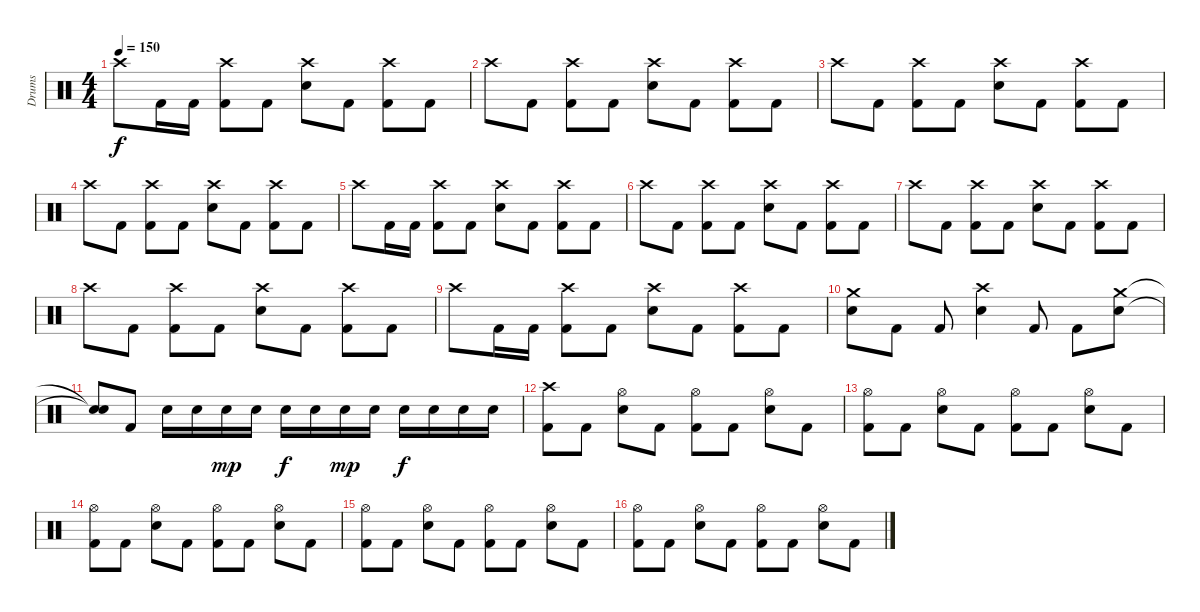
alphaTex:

\track ("Drums" "Drums") {instrument percussion}
\staff {score}
\articulation defaults
\ts (4 4)
\tempo 150
\clef neutral
\ks c "Crash high (hit)".8{dy f} "Kick (hit) 2".16 "Kick (hit) 2".16
("Crash high (hit)" "Kick (hit) 2").8 "Kick (hit) 2".8 ("Crash high (hit)" "Electric Snare (hit)").8 "Kick (hit) 2".8 ("Crash high (hit)" "Kick (hit) 2").8 "Kick (hit) 2".8 |
"Crash high (hit)".8 "Kick (hit) 2".8 ("Crash high (hit)" "Kick (hit) 2").8 "Kick (hit) 2".8 ("Crash high (hit)" "Electric Snare (hit)").8 "Kick (hit) 2".8 ("Crash high (hit)" "Kick (hit) 2").8 "Kick (hit) 2".8 |
"Crash high (hit)".8 "Kick (hit) 2".8 ("Crash high (hit)" "Kick (hit) 2").8 "Kick (hit) 2".8 ("Crash high (hit)" "Electric Snare (hit)").8 "Kick (hit) 2".8 ("Crash high (hit)" "Kick (hit) 2").8 "Kick (hit) 2".8 |
"Crash high (hit)".8 "Kick (hit) 2".8 ("Crash high (hit)" "Kick (hit) 2").8 "Kick (hit) 2".8 ("Crash high (hit)" "Electric Snare (hit)").8 "Kick (hit) 2".8 ("Crash high (hit)" "Kick (hit) 2").8 "Kick (hit) 2".8 |
"Crash high (hit)".8 "Kick (hit) 2".16 "Kick (hit) 2".16 ("Crash high (hit)" "Kick (hit) 2").8 "Kick (hit) 2".8 ("Crash high (hit)" "Electric Snare (hit)").8 "Kick (hit) 2".8 ("Crash high (hit)" "Kick (hit) 2").8 "Kick (hit) 2".8 |
"Crash high (hit)".8 "Kick (hit) 2".8 ("Crash high (hit)" "Kick (hit) 2").8 "Kick (hit) 2".8 ("Crash high (hit)" "Electric Snare (hit)").8 "Kick (hit) 2".8 ("Crash high (hit)" "Kick (hit) 2").8 "Kick (hit) 2".8 |
"Crash high (hit)".8 "Kick (hit) 2".8 ("Crash high (hit)" "Kick (hit) 2").8 "Kick (hit) 2".8 ("Crash high (hit)" "Electric Snare (hit)").8 "Kick (hit) 2".8 ("Crash high (hit)" "Kick (hit) 2").8 "Kick (hit) 2".8 |
"Crash high (hit)".8 "Kick (hit) 2".8 ("Crash high (hit)" "Kick (hit) 2").8 "Kick (hit) 2".8 ("Crash high (hit)" "Electric Snare (hit)").8 "Kick (hit) 2".8 ("Crash high (hit)" "Kick (hit) 2").8 "Kick (hit) 2".8 |
"Crash high (hit)".8 "Kick (hit) 2".16 "Kick (hit) 2".16 ("Crash high (hit)" "Kick (hit) 2").8 "Kick (hit) 2".8 ("Crash high (hit)" "Electric Snare (hit)").8 "Kick (hit) 2".8 ("Crash high (hit)" "Kick (hit) 2").8 "Kick (hit) 2".8 |
("Crash medium (hit)" "Electric Snare (hit)").8 "Kick (hit) 2".8 "Kick (hit) 2".8 ("Crash high (hit)" "Electric Snare (hit)").4 "Kick (hit) 2".8 "Kick (hit) 2".8 ("Crash medium (hit)" "Electric Snare (hit)").8 |
("Snare (hit)"{t} "Snare (hit)"{t}).8 "Kick (hit) 2".8 "Electric Snare (hit)".16 "Electric Snare (hit)".16 "Electric Snare (hit)".16{dy mp} "Electric Snare (hit)".16 "Electric Snare (hit)".16{dy f} "Electric Snare (hit)".16 "Electric Snare (hit)".16{dy mp} "Electric Snare (hit)".16 "Electric Snare (hit)".16{dy f} "Electric Snare (hit)".16 "Electric Snare (hit)".16 "Electric Snare (hit)".16 |
("Crash high (hit)" "Kick (hit) 2").8 "Kick (hit) 2".8 ("Hi-Hat (open)" "Electric Snare (hit)").8 "Kick (hit) 2".8 ("Hi-Hat (open)" "Kick (hit) 2").8 "Kick (hit) 2".8 ("Hi-Hat (open)" "Electric Snare (hit)").8 "Kick (hit) 2".8 |
("Hi-Hat (open)" "Kick (hit) 2").8 "Kick (hit) 2".8 ("Hi-Hat (open)" "Electric Snare (hit)").8 "Kick (hit) 2".8 ("Hi-Hat (open)" "Kick (hit) 2").8 "Kick (hit) 2".8 ("Hi-Hat (open)" "Electric Snare (hit)").8 "Kick (hit) 2".8 |
("Hi-Hat (open)" "Kick (hit) 2").8 "Kick (hit) 2".8 ("Hi-Hat (open)" "Electric Snare (hit)").8 "Kick (hit) 2".8 ("Hi-Hat (open)" "Kick (hit) 2").8 "Kick (hit) 2".8 ("Hi-Hat (open)" "Electric Snare (hit)").8 "Kick (hit) 2".8 |
("Hi-Hat (open)" "Kick (hit) 2").8 "Kick (hit) 2".8 ("Hi-Hat (open)" "Electric Snare (hit)").8 "Kick (hit) 2".8 ("Hi-Hat (open)" "Kick (hit) 2").8 "Kick (hit) 2".8 ("Hi-Hat (open)" "Electric Snare (hit)").8 "Kick (hit) 2".8 |
("Hi-Hat (open)" "Kick (hit) 2").8 "Kick (hit) 2".8 ("Hi-Hat (open)" "Electric Snare (hit)").8 "Kick (hit) 2".8 ("Hi-Hat (open)" "Kick (hit) 2").8 "Kick (hit) 2".8 ("Hi-Hat (open)" "Electric Snare (hit)").8 "Kick (hit) 2".8
